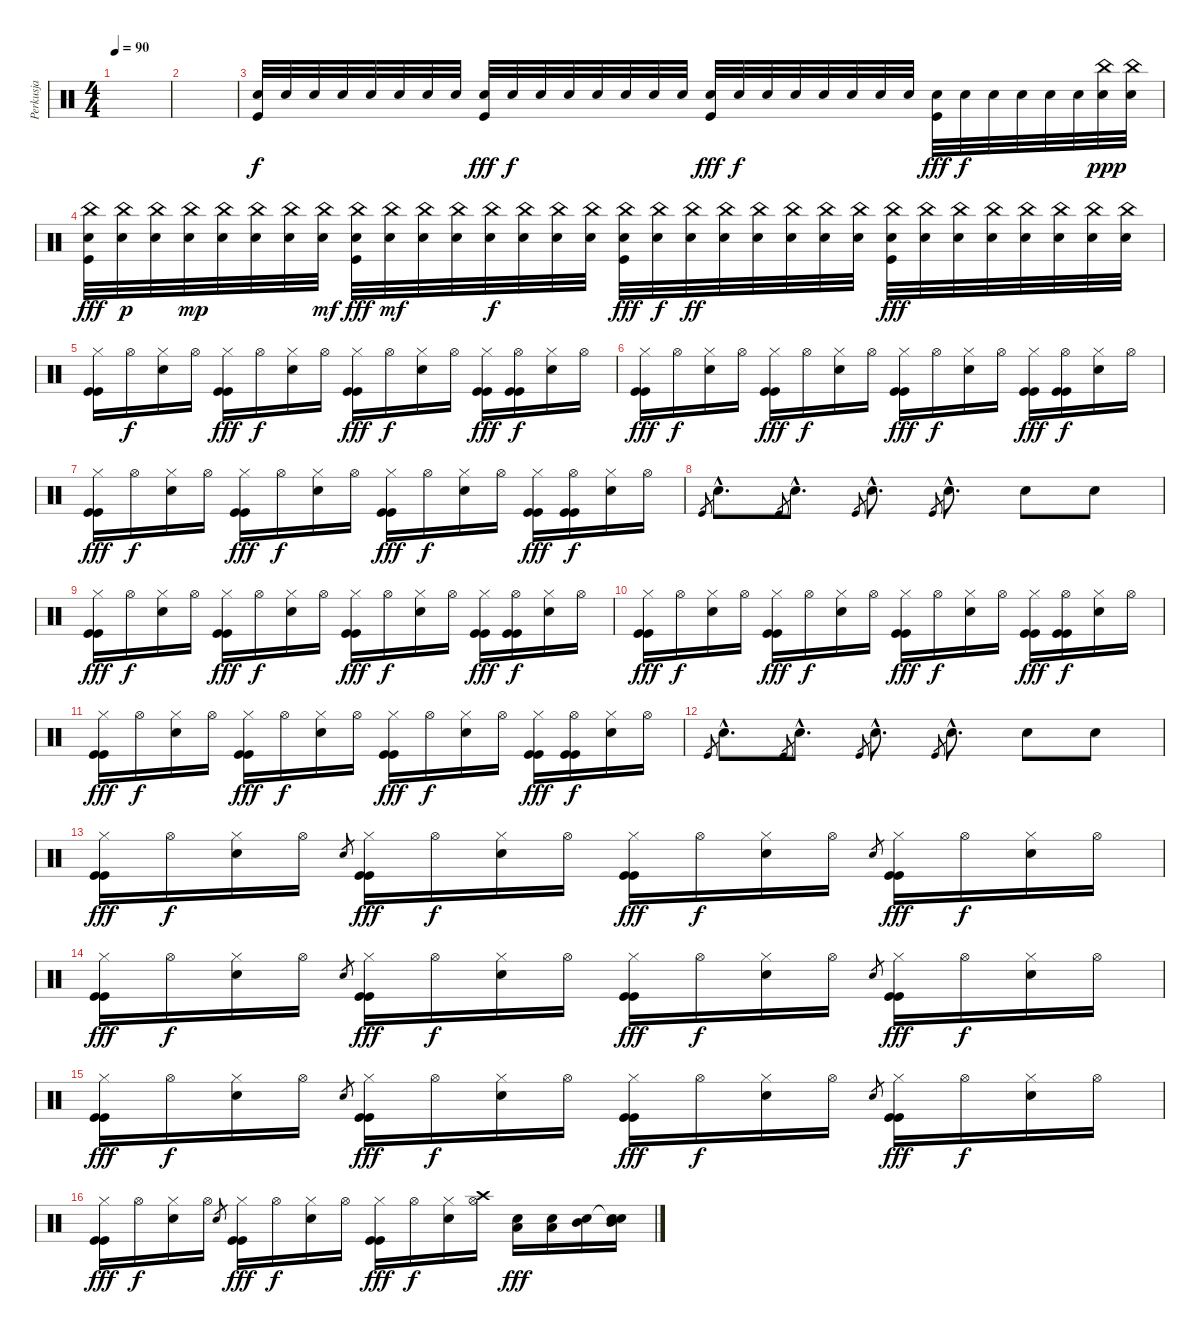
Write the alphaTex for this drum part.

\track ("Perkusja" "Perkusja") {instrument percussion}
\staff {score}
\articulation defaults
\ts (4 4)
\tempo 90
\clef neutral
\ks c
|
|
("Snare (hit) 2" "Kick (hit)").32 "Snare (hit) 2".32{dy f} "Snare (hit) 2".32 "Snare (hit) 2".32 "Snare (hit) 2".32 "Snare (hit) 2".32 "Snare (hit) 2".32 "Snare (hit) 2".32 ("Snare (hit) 2" "Kick (hit)").32{dy fff} "Snare (hit) 2".32{dy f} "Snare (hit) 2".32 "Snare (hit) 2".32 "Snare (hit) 2".32 "Snare (hit) 2".32 "Snare (hit) 2".32 "Snare (hit) 2".32 ("Snare (hit) 2" "Kick (hit)").32{dy fff} "Snare (hit) 2".32{dy f} "Snare (hit) 2".32 "Snare (hit) 2".32 "Snare (hit) 2".32 "Snare (hit) 2".32 "Snare (hit) 2".32 "Snare (hit) 2".32 ("Snare (hit) 2" "Kick (hit)").32{dy fff} "Snare (hit) 2".32{dy f} "Snare (hit) 2".32 "Snare (hit) 2".32 "Snare (hit) 2".32 "Snare (hit) 2".32 ("China (hit)" "Snare (hit) 2").32{dy ppp} ("China (hit)" "Snare (hit) 2").32 |
("China (hit)" "Snare (hit) 2" "Kick (hit)").32{dy fff} ("China (hit)" "Snare (hit) 2").32{dy p} ("China (hit)" "Snare (hit) 2").32 ("China (hit)" "Snare (hit) 2").32{dy mp} ("China (hit)" "Snare (hit) 2").32 ("China (hit)" "Snare (hit) 2").32 ("China (hit)" "Snare (hit) 2").32 ("China (hit)" "Snare (hit) 2").32{dy mf} ("China (hit)" "Snare (hit) 2" "Kick (hit)").32{dy fff} ("China (hit)" "Snare (hit) 2").32{dy mf} ("China (hit)" "Snare (hit) 2").32 ("China (hit)" "Snare (hit) 2").32 ("China (hit)" "Snare (hit) 2").32{dy f} ("China (hit)" "Snare (hit) 2").32 ("China (hit)" "Snare (hit) 2").32 ("China (hit)" "Snare (hit) 2").32 ("China (hit)" "Snare (hit) 2" "Kick (hit)").32{dy fff} ("China (hit)" "Snare (hit) 2").32{dy f} ("China (hit)" "Snare (hit) 2").32{dy ff} ("China (hit)" "Snare (hit) 2").32 ("China (hit)" "Snare (hit) 2").32 ("China (hit)" "Snare (hit) 2").32 ("China (hit)" "Snare (hit) 2").32 ("China (hit)" "Snare (hit) 2").32 ("China (hit)" "Snare (hit) 2" "Kick (hit)").32{dy fff} ("China (hit)" "Snare (hit) 2").32 ("China (hit)" "Snare (hit) 2").32 ("China (hit)" "Snare (hit) 2").32 ("China (hit)" "Snare (hit) 2").32 ("China (hit)" "Snare (hit) 2").32 ("China (hit)" "Snare (hit) 2").32 ("China (hit)" "Snare (hit) 2").32 |
("Hi-Hat (closed)" "Kick (hit)" "Kick (hit)").16 "Hi-Hat (open)".16{dy f} ("Hi-Hat (closed)" "Snare (hit) 2").16 "Hi-Hat (open)".16 ("Hi-Hat (closed)" "Kick (hit)" "Kick (hit)").16{dy fff} "Hi-Hat (open)".16{dy f} ("Hi-Hat (closed)" "Snare (hit) 2").16 "Hi-Hat (open)".16 ("Hi-Hat (closed)" "Kick (hit)" "Kick (hit)").16{dy fff} "Hi-Hat (open)".16{dy f} ("Hi-Hat (closed)" "Snare (hit) 2").16 "Hi-Hat (open)".16 ("Hi-Hat (closed)" "Kick (hit)" "Kick (hit)").16{dy fff} ("Hi-Hat (open)" "Kick (hit)" "Kick (hit)").16{dy f} ("Hi-Hat (closed)" "Snare (hit) 2").16 "Hi-Hat (open)".16 |
("Hi-Hat (closed)" "Kick (hit)" "Kick (hit)").16{dy fff} "Hi-Hat (open)".16{dy f} ("Hi-Hat (closed)" "Snare (hit) 2").16 "Hi-Hat (open)".16 ("Hi-Hat (closed)" "Kick (hit)" "Kick (hit)").16{dy fff} "Hi-Hat (open)".16{dy f} ("Hi-Hat (closed)" "Snare (hit) 2").16 "Hi-Hat (open)".16 ("Hi-Hat (closed)" "Kick (hit)" "Kick (hit)").16{dy fff} "Hi-Hat (open)".16{dy f} ("Hi-Hat (closed)" "Snare (hit) 2").16 "Hi-Hat (open)".16 ("Hi-Hat (closed)" "Kick (hit)" "Kick (hit)").16{dy fff} ("Hi-Hat (open)" "Kick (hit)" "Kick (hit)").16{dy f} ("Hi-Hat (closed)" "Snare (hit) 2").16 "Hi-Hat (open)".16 |
("Hi-Hat (closed)" "Kick (hit)" "Kick (hit)").16{dy fff} "Hi-Hat (open)".16{dy f} ("Hi-Hat (closed)" "Snare (hit) 2").16 "Hi-Hat (open)".16 ("Hi-Hat (closed)" "Kick (hit)" "Kick (hit)").16{dy fff} "Hi-Hat (open)".16{dy f} ("Hi-Hat (closed)" "Snare (hit) 2").16 "Hi-Hat (open)".16 ("Hi-Hat (closed)" "Kick (hit)" "Kick (hit)").16{dy fff} "Hi-Hat (open)".16{dy f} ("Hi-Hat (closed)" "Snare (hit) 2").16 "Hi-Hat (open)".16 ("Hi-Hat (closed)" "Kick (hit)" "Kick (hit)").16{dy fff} ("Hi-Hat (open)" "Kick (hit)" "Kick (hit)").16{dy f} ("Hi-Hat (closed)" "Snare (hit) 2").16 "Hi-Hat (open)".16 |
"Kick (hit)".8{gr} "Snare (hit) 2"{hac}.8{d} "Kick (hit)".8{gr} "Snare (hit) 2"{hac}.8{d} "Kick (hit)".8{gr} "Snare (hit) 2"{hac}.8{d} "Kick (hit)".8{gr} "Snare (hit) 2"{hac}.8{d} "Snare (hit) 2".8 "Snare (hit) 2".8 |
("Hi-Hat (closed)" "Kick (hit)" "Kick (hit)").16{dy fff} "Hi-Hat (open)".16{dy f} ("Hi-Hat (closed)" "Snare (hit) 2").16 "Hi-Hat (open)".16 ("Hi-Hat (closed)" "Kick (hit)" "Kick (hit)").16{dy fff} "Hi-Hat (open)".16{dy f} ("Hi-Hat (closed)" "Snare (hit) 2").16 "Hi-Hat (open)".16 ("Hi-Hat (closed)" "Kick (hit)" "Kick (hit)").16{dy fff} "Hi-Hat (open)".16{dy f} ("Hi-Hat (closed)" "Snare (hit) 2").16 "Hi-Hat (open)".16 ("Hi-Hat (closed)" "Kick (hit)" "Kick (hit)").16{dy fff} ("Hi-Hat (open)" "Kick (hit)" "Kick (hit)").16{dy f} ("Hi-Hat (closed)" "Snare (hit) 2").16 "Hi-Hat (open)".16 |
("Hi-Hat (closed)" "Kick (hit)" "Kick (hit)").16{dy fff} "Hi-Hat (open)".16{dy f} ("Hi-Hat (closed)" "Snare (hit) 2").16 "Hi-Hat (open)".16 ("Hi-Hat (closed)" "Kick (hit)" "Kick (hit)").16{dy fff} "Hi-Hat (open)".16{dy f} ("Hi-Hat (closed)" "Snare (hit) 2").16 "Hi-Hat (open)".16 ("Hi-Hat (closed)" "Kick (hit)" "Kick (hit)").16{dy fff} "Hi-Hat (open)".16{dy f} ("Hi-Hat (closed)" "Snare (hit) 2").16 "Hi-Hat (open)".16 ("Hi-Hat (closed)" "Kick (hit)" "Kick (hit)").16{dy fff} ("Hi-Hat (open)" "Kick (hit)" "Kick (hit)").16{dy f} ("Hi-Hat (closed)" "Snare (hit) 2").16 "Hi-Hat (open)".16 |
("Hi-Hat (closed)" "Kick (hit)" "Kick (hit)").16{dy fff} "Hi-Hat (open)".16{dy f} ("Hi-Hat (closed)" "Snare (hit) 2").16 "Hi-Hat (open)".16 ("Hi-Hat (closed)" "Kick (hit)" "Kick (hit)").16{dy fff} "Hi-Hat (open)".16{dy f} ("Hi-Hat (closed)" "Snare (hit) 2").16 "Hi-Hat (open)".16 ("Hi-Hat (closed)" "Kick (hit)" "Kick (hit)").16{dy fff} "Hi-Hat (open)".16{dy f} ("Hi-Hat (closed)" "Snare (hit) 2").16 "Hi-Hat (open)".16 ("Hi-Hat (closed)" "Kick (hit)" "Kick (hit)").16{dy fff} ("Hi-Hat (open)" "Kick (hit)" "Kick (hit)").16{dy f} ("Hi-Hat (closed)" "Snare (hit) 2").16 "Hi-Hat (open)".16 |
"Kick (hit)".8{gr} "Snare (hit) 2"{hac}.8{d} "Kick (hit)".8{gr} "Snare (hit) 2"{hac}.8{d} "Kick (hit)".8{gr} "Snare (hit) 2"{hac}.8{d} "Kick (hit)".8{gr} "Snare (hit) 2"{hac}.8{d} "Snare (hit) 2".8 "Snare (hit) 2".8 |
("Hi-Hat (closed)" "Kick (hit)" "Kick (hit)").16{dy fff} "Hi-Hat (open)".16{dy f} ("Hi-Hat (closed)" "Snare (hit) 2").16 "Hi-Hat (open)".16 "Snare (hit) 2".8{gr} ("Hi-Hat (closed)" "Kick (hit)" "Kick (hit)").16{dy fff} "Hi-Hat (open)".16{dy f} ("Hi-Hat (closed)" "Snare (hit) 2").16 "Hi-Hat (open)".16 ("Hi-Hat (closed)" "Kick (hit)" "Kick (hit)").16{dy fff} "Hi-Hat (open)".16{dy f} ("Hi-Hat (closed)" "Snare (hit) 2").16 "Hi-Hat (open)".16 "Snare (hit) 2".8{gr} ("Hi-Hat (closed)" "Kick (hit)" "Kick (hit)").16{dy fff} "Hi-Hat (open)".16{dy f} ("Hi-Hat (closed)" "Snare (hit) 2").16 "Hi-Hat (open)".16 |
("Hi-Hat (closed)" "Kick (hit)" "Kick (hit)").16{dy fff} "Hi-Hat (open)".16{dy f} ("Hi-Hat (closed)" "Snare (hit) 2").16 "Hi-Hat (open)".16 "Snare (hit) 2".8{gr} ("Hi-Hat (closed)" "Kick (hit)" "Kick (hit)").16{dy fff} "Hi-Hat (open)".16{dy f} ("Hi-Hat (closed)" "Snare (hit) 2").16 "Hi-Hat (open)".16 ("Hi-Hat (closed)" "Kick (hit)" "Kick (hit)").16{dy fff} "Hi-Hat (open)".16{dy f} ("Hi-Hat (closed)" "Snare (hit) 2").16 "Hi-Hat (open)".16 "Snare (hit) 2".8{gr} ("Hi-Hat (closed)" "Kick (hit)" "Kick (hit)").16{dy fff} "Hi-Hat (open)".16{dy f} ("Hi-Hat (closed)" "Snare (hit) 2").16 "Hi-Hat (open)".16 |
("Hi-Hat (closed)" "Kick (hit)" "Kick (hit)").16{dy fff} "Hi-Hat (open)".16{dy f} ("Hi-Hat (closed)" "Snare (hit) 2").16 "Hi-Hat (open)".16 "Snare (hit) 2".8{gr} ("Hi-Hat (closed)" "Kick (hit)" "Kick (hit)").16{dy fff} "Hi-Hat (open)".16{dy f} ("Hi-Hat (closed)" "Snare (hit) 2").16 "Hi-Hat (open)".16 ("Hi-Hat (closed)" "Kick (hit)" "Kick (hit)").16{dy fff} "Hi-Hat (open)".16{dy f} ("Hi-Hat (closed)" "Snare (hit) 2").16 "Hi-Hat (open)".16 "Snare (hit) 2".8{gr} ("Hi-Hat (closed)" "Kick (hit)" "Kick (hit)").16{dy fff} "Hi-Hat (open)".16{dy f} ("Hi-Hat (closed)" "Snare (hit) 2").16 "Hi-Hat (open)".16 |
("Hi-Hat (closed)" "Kick (hit)" "Kick (hit)").16{dy fff} "Hi-Hat (open)".16{dy f} ("Hi-Hat (closed)" "Snare (hit) 2").16 "Hi-Hat (open)".16 "Snare (hit) 2".8{gr} ("Hi-Hat (closed)" "Kick (hit)" "Kick (hit)").16{dy fff} "Hi-Hat (open)".16{dy f} ("Hi-Hat (closed)" "Snare (hit) 2").16 "Hi-Hat (open)".16 ("Hi-Hat (closed)" "Kick (hit)" "Kick (hit)").16{dy fff} "Hi-Hat (open)".16{dy f} ("Hi-Hat (closed)" "Snare (hit) 2").16 ("Hi-Hat (open)" "Crash high (hit)").16 ("Electric Snare (hit)" "Low Tom (hit)").16{dy fff} ("Electric Snare (hit)" "Low Tom (hit)").16 ("Electric Snare (hit)" "Mid Tom (hit)").16 ("Snare (hit)"{t} "Electric Snare (hit)" "Mid Tom (hit)").16
